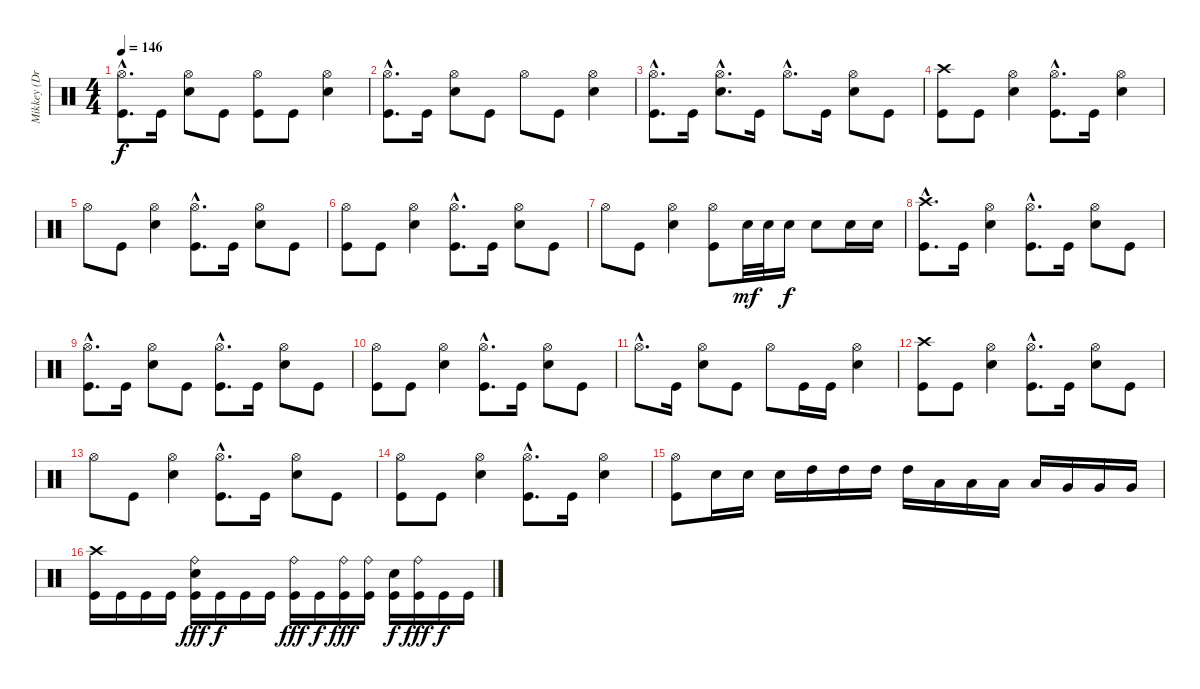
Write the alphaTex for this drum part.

\track ("Mikkey (Drums)" "Mikkey (Dr") {instrument percussion}
\staff {score}
\articulation defaults
\ts (4 4)
\tempo 146
\clef neutral
\ks c
("Hi-Hat (open)"{hac} "Kick (hit)"{hac}).8{d dy f} "Kick (hit)".16 ("Hi-Hat (open)" "Electric Snare (hit)").8 "Kick (hit)".8 ("Hi-Hat (open)" "Kick (hit)").8 "Kick (hit)".8 ("Hi-Hat (open)" "Electric Snare (hit)").4 |
("Hi-Hat (open)"{hac} "Kick (hit)"{hac}).8{d} "Kick (hit)".16 ("Hi-Hat (open)" "Electric Snare (hit)").8 "Kick (hit)".8 "Hi-Hat (open)".8 "Kick (hit)".8 ("Hi-Hat (open)" "Electric Snare (hit)").4 |
("Hi-Hat (open)"{hac} "Kick (hit)"{hac}).8{d} "Kick (hit)".16 ("Hi-Hat (open)"{hac} "Electric Snare (hit)"{hac}).8{d} "Kick (hit)".16 "Hi-Hat (open)"{hac}.8{d} "Kick (hit)".16 ("Hi-Hat (open)" "Electric Snare (hit)").8 "Kick (hit)".8 |
("Crash high (hit)" "Kick (hit)").8 "Kick (hit)".8 ("Hi-Hat (open)" "Electric Snare (hit)").4 ("Hi-Hat (open)"{hac} "Kick (hit)"{hac}).8{d} "Kick (hit)".16 ("Hi-Hat (open)" "Electric Snare (hit)").4 |
"Hi-Hat (open)".8 "Kick (hit)".8 ("Hi-Hat (open)" "Electric Snare (hit)").4 ("Hi-Hat (open)"{hac} "Kick (hit)"{hac}).8{d} "Kick (hit)".16 ("Hi-Hat (open)" "Electric Snare (hit)").8 "Kick (hit)".8 |
("Hi-Hat (open)" "Kick (hit)").8 "Kick (hit)".8 ("Hi-Hat (open)" "Electric Snare (hit)").4 ("Hi-Hat (open)"{hac} "Kick (hit)"{hac}).8{d} "Kick (hit)".16 ("Hi-Hat (open)" "Electric Snare (hit)").8 "Kick (hit)".8 |
"Hi-Hat (open)".8 "Kick (hit)".8 ("Hi-Hat (open)" "Electric Snare (hit)").4 ("Hi-Hat (open)" "Kick (hit)").8 "Electric Snare (hit)".32{dy mf} "Electric Snare (hit)".32 "Electric Snare (hit)".16{dy f} "Electric Snare (hit)".8 "Electric Snare (hit)".16 "Electric Snare (hit)".16 |
("Crash high (hit)"{hac} "Kick (hit)"{hac}).8{d} "Kick (hit)".16 ("Hi-Hat (open)" "Electric Snare (hit)").4 ("Hi-Hat (open)"{hac} "Kick (hit)"{hac}).8{d} "Kick (hit)".16 ("Hi-Hat (open)" "Electric Snare (hit)").8 "Kick (hit)".8 |
("Hi-Hat (open)"{hac} "Kick (hit)"{hac}).8{d} "Kick (hit)".16 ("Hi-Hat (open)" "Electric Snare (hit)").8 "Kick (hit)".8 ("Hi-Hat (open)"{hac} "Kick (hit)"{hac}).8{d} "Kick (hit)".16 ("Hi-Hat (open)" "Electric Snare (hit)").8 "Kick (hit)".8 |
("Hi-Hat (open)" "Kick (hit)").8 "Kick (hit)".8 ("Hi-Hat (open)" "Electric Snare (hit)").4 ("Hi-Hat (open)"{hac} "Kick (hit)"{hac}).8{d} "Kick (hit)".16 ("Hi-Hat (open)" "Electric Snare (hit)").8 "Kick (hit)".8 |
"Hi-Hat (open)"{hac}.8{d} "Kick (hit)".16 ("Hi-Hat (open)" "Electric Snare (hit)").8 "Kick (hit)".8 "Hi-Hat (open)".8 "Kick (hit)".16 "Kick (hit)".16 ("Hi-Hat (open)" "Electric Snare (hit)").4 |
("Crash high (hit)" "Kick (hit)").8 "Kick (hit)".8 ("Hi-Hat (open)" "Electric Snare (hit)").4 ("Hi-Hat (open)"{hac} "Kick (hit)"{hac}).8{d} "Kick (hit)".16 ("Hi-Hat (open)" "Electric Snare (hit)").8 "Kick (hit)".8 |
"Hi-Hat (open)".8 "Kick (hit)".8 ("Hi-Hat (open)" "Electric Snare (hit)").4 ("Hi-Hat (open)"{hac} "Kick (hit)"{hac}).8{d} "Kick (hit)".16 ("Hi-Hat (open)" "Electric Snare (hit)").8 "Kick (hit)".8 |
("Hi-Hat (open)" "Kick (hit)").8 "Kick (hit)".8 ("Hi-Hat (open)" "Electric Snare (hit)").4 ("Hi-Hat (open)"{hac} "Kick (hit)"{hac}).8{d} "Kick (hit)".16 ("Hi-Hat (open)" "Electric Snare (hit)").4 |
("Hi-Hat (open)" "Kick (hit)").8 "Electric Snare (hit)".16 "Electric Snare (hit)".16 "Electric Snare (hit)".16 "High Tom (hit)".16 "High Tom (hit)".16 "High Tom (hit)".16 "High Tom (hit)".16 "Low Tom (hit)".16 "Low Tom (hit)".16 "Low Tom (hit)".16 "Low Tom (hit)".16 "Very Low Tom (hit)".16 "Very Low Tom (hit)".16 "Very Low Tom (hit)".16 |
("Crash high (hit)" "Kick (hit)").16 "Kick (hit)".16 "Kick (hit)".16 "Kick (hit)".16 ("Ride (bell)" "Electric Snare (hit)" "Kick (hit)").16{dy fff} "Kick (hit)".16{dy f} "Kick (hit)".16 "Kick (hit)".16 ("Ride (bell)" "Kick (hit)").16{dy fff} "Kick (hit)".16{dy f} ("Ride (bell)" "Kick (hit)").16{dy fff} ("Ride (bell)" "Kick (hit)").16 ("Electric Snare (hit)" "Kick (hit)").16{dy f} ("Ride (bell)" "Kick (hit)").16{dy fff} "Kick (hit)".16{dy f} "Kick (hit)".16
